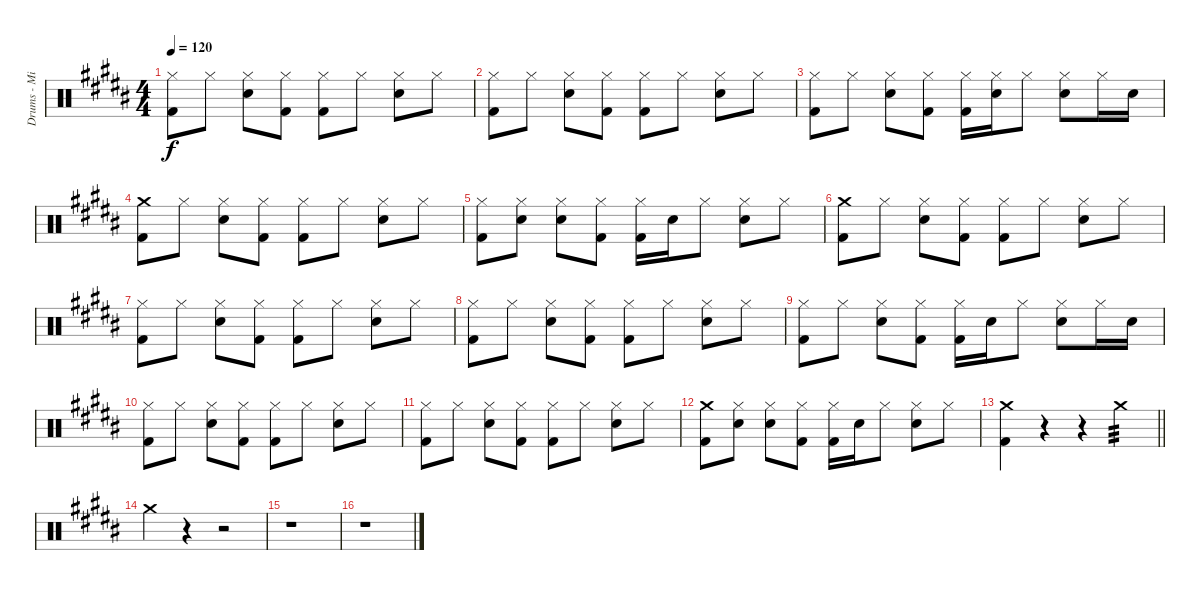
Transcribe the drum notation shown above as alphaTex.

\track ("Drums - Minh-Thu" "Drums - Mi") {instrument percussion}
\staff {score}
\articulation defaults
\ts (4 4)
\tempo 120
\clef neutral
\ks b
("Hi-Hat (closed)" "Kick (hit) 2").8{dy f} "Hi-Hat (closed)".8 ("Hi-Hat (closed)" "Electric Snare (hit)").8 ("Hi-Hat (closed)" "Kick (hit) 2").8 ("Hi-Hat (closed)" "Kick (hit) 2").8 "Hi-Hat (closed)".8 ("Hi-Hat (closed)" "Electric Snare (hit)").8 "Hi-Hat (closed)".8 |
("Hi-Hat (closed)" "Kick (hit) 2").8 "Hi-Hat (closed)".8 ("Hi-Hat (closed)" "Electric Snare (hit)").8 ("Hi-Hat (closed)" "Kick (hit) 2").8 ("Hi-Hat (closed)" "Kick (hit) 2").8 "Hi-Hat (closed)".8 ("Hi-Hat (closed)" "Electric Snare (hit)").8 "Hi-Hat (closed)".8 |
("Hi-Hat (closed)" "Kick (hit) 2").8 "Hi-Hat (closed)".8 ("Hi-Hat (closed)" "Electric Snare (hit)").8 ("Hi-Hat (closed)" "Kick (hit) 2").8 ("Hi-Hat (closed)" "Kick (hit) 2").16 ("Hi-Hat (closed)" "Electric Snare (hit)").16 "Hi-Hat (closed)".8 ("Hi-Hat (closed)" "Electric Snare (hit)").8 "Hi-Hat (closed)".16 "Electric Snare (hit)".16 |
("Crash medium (hit)" "Kick (hit) 2").8 "Hi-Hat (closed)".8 ("Hi-Hat (closed)" "Electric Snare (hit)").8 ("Hi-Hat (closed)" "Kick (hit) 2").8 ("Hi-Hat (closed)" "Kick (hit) 2").8 "Hi-Hat (closed)".8 ("Hi-Hat (closed)" "Electric Snare (hit)").8 "Hi-Hat (closed)".8 |
("Hi-Hat (closed)" "Kick (hit) 2").8 ("Hi-Hat (closed)" "Electric Snare (hit)").8 ("Hi-Hat (closed)" "Electric Snare (hit)").8 ("Hi-Hat (closed)" "Kick (hit) 2").8 ("Hi-Hat (closed)" "Kick (hit) 2").16 "Electric Snare (hit)".16 "Hi-Hat (closed)".8 ("Hi-Hat (closed)" "Electric Snare (hit)").8 "Hi-Hat (closed)".8 |
("Crash medium (hit)" "Kick (hit) 2").8 "Hi-Hat (closed)".8 ("Hi-Hat (closed)" "Electric Snare (hit)").8 ("Hi-Hat (closed)" "Kick (hit) 2").8 ("Hi-Hat (closed)" "Kick (hit) 2").8 "Hi-Hat (closed)".8 ("Hi-Hat (closed)" "Electric Snare (hit)").8 "Hi-Hat (closed)".8 |
("Hi-Hat (closed)" "Kick (hit) 2").8 "Hi-Hat (closed)".8 ("Hi-Hat (closed)" "Electric Snare (hit)").8 ("Hi-Hat (closed)" "Kick (hit) 2").8 ("Hi-Hat (closed)" "Kick (hit) 2").8 "Hi-Hat (closed)".8 ("Hi-Hat (closed)" "Electric Snare (hit)").8 "Hi-Hat (closed)".8 |
("Hi-Hat (closed)" "Kick (hit) 2").8 "Hi-Hat (closed)".8 ("Hi-Hat (closed)" "Electric Snare (hit)").8 ("Hi-Hat (closed)" "Kick (hit) 2").8 ("Hi-Hat (closed)" "Kick (hit) 2").8 "Hi-Hat (closed)".8 ("Hi-Hat (closed)" "Electric Snare (hit)").8 "Hi-Hat (closed)".8 |
("Hi-Hat (closed)" "Kick (hit) 2").8 "Hi-Hat (closed)".8 ("Hi-Hat (closed)" "Electric Snare (hit)").8 ("Hi-Hat (closed)" "Kick (hit) 2").8 ("Hi-Hat (closed)" "Kick (hit) 2").16 "Electric Snare (hit)".16 "Hi-Hat (closed)".8 ("Hi-Hat (closed)" "Electric Snare (hit)").8 "Hi-Hat (closed)".16 "Electric Snare (hit)".16 |
("Hi-Hat (closed)" "Kick (hit) 2").8 "Hi-Hat (closed)".8 ("Hi-Hat (closed)" "Electric Snare (hit)").8 ("Hi-Hat (closed)" "Kick (hit) 2").8 ("Hi-Hat (closed)" "Kick (hit) 2").8 "Hi-Hat (closed)".8 ("Hi-Hat (closed)" "Electric Snare (hit)").8 "Hi-Hat (closed)".8 |
("Hi-Hat (closed)" "Kick (hit) 2").8 "Hi-Hat (closed)".8 ("Hi-Hat (closed)" "Electric Snare (hit)").8 ("Hi-Hat (closed)" "Kick (hit) 2").8 ("Hi-Hat (closed)" "Kick (hit) 2").8 "Hi-Hat (closed)".8 ("Hi-Hat (closed)" "Electric Snare (hit)").8 "Hi-Hat (closed)".8 |
("Crash medium (hit)" "Kick (hit) 2").8 ("Hi-Hat (closed)" "Electric Snare (hit)").8 ("Hi-Hat (closed)" "Electric Snare (hit)").8 ("Hi-Hat (closed)" "Kick (hit) 2").8 ("Hi-Hat (closed)" "Kick (hit) 2").16 "Electric Snare (hit)".16 "Hi-Hat (closed)".8 ("Hi-Hat (closed)" "Electric Snare (hit)").8 "Hi-Hat (closed)".8 |
\barLineRight lightlight
("Crash medium (hit)" "Kick (hit) 2").4 r.4 r.4 "Crash medium (hit)".4{tp 3} |
"Crash medium (hit)".4 r.4 r.2 |
r.1 |
r.1
